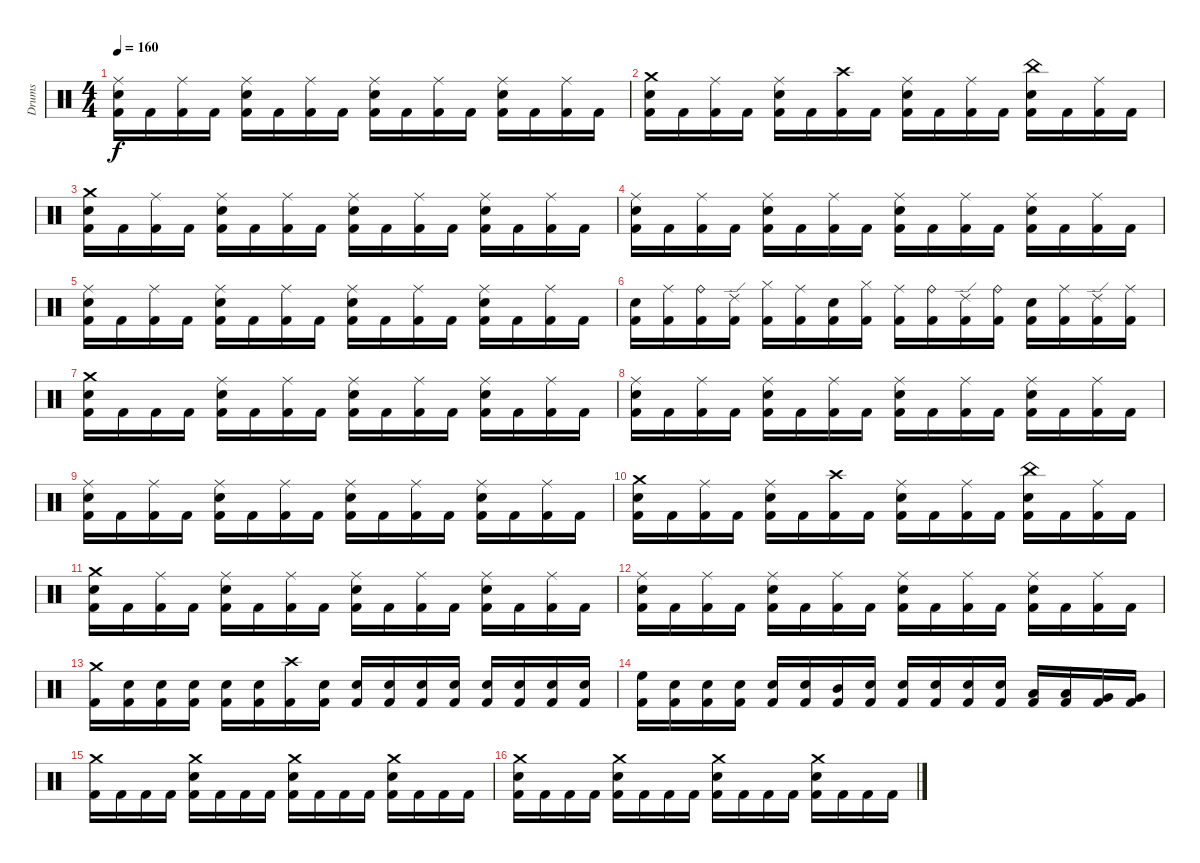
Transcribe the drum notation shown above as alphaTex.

\track ("Drums" "Drums") {instrument percussion}
\staff {score}
\articulation defaults
\ts (4 4)
\tempo 160
\clef neutral
\ks c
("Ride (middle)" "Snare (hit) 2" "Kick (hit) 2").16{dy f} "Kick (hit) 2".16 ("Ride (middle)" "Kick (hit) 2").16 "Kick (hit) 2".16 ("Ride (middle)" "Snare (hit) 2" "Kick (hit) 2").16 "Kick (hit) 2".16 ("Ride (middle)" "Kick (hit) 2").16 "Kick (hit) 2".16 ("Ride (middle)" "Snare (hit) 2" "Kick (hit) 2").16 "Kick (hit) 2".16 ("Ride (middle)" "Kick (hit) 2").16 "Kick (hit) 2".16 ("Ride (middle)" "Snare (hit) 2" "Kick (hit) 2").16 "Kick (hit) 2".16 ("Ride (middle)" "Kick (hit) 2").16 "Kick (hit) 2".16 |
("Crash medium (hit)" "Snare (hit) 2" "Kick (hit) 2").16 "Kick (hit) 2".16 ("Ride (middle)" "Kick (hit) 2").16 "Kick (hit) 2".16 ("Ride (middle)" "Snare (hit) 2" "Kick (hit) 2").16 "Kick (hit) 2".16 ("Crash high (hit)" "Kick (hit) 2").16 "Kick (hit) 2".16 ("Ride (middle)" "Snare (hit) 2" "Kick (hit) 2").16 "Kick (hit) 2".16 ("Ride (middle)" "Kick (hit) 2").16 "Kick (hit) 2".16 ("China (hit)" "Snare (hit) 2" "Kick (hit) 2").16 "Kick (hit) 2".16 ("Ride (middle)" "Kick (hit) 2").16 "Kick (hit) 2".16 |
("Crash medium (hit)" "Snare (hit) 2" "Kick (hit) 2").16 "Kick (hit) 2".16 ("Ride (middle)" "Kick (hit) 2").16 "Kick (hit) 2".16 ("Ride (middle)" "Snare (hit) 2" "Kick (hit) 2").16 "Kick (hit) 2".16 ("Ride (middle)" "Kick (hit) 2").16 "Kick (hit) 2".16 ("Ride (middle)" "Snare (hit) 2" "Kick (hit) 2").16 "Kick (hit) 2".16 ("Ride (middle)" "Kick (hit) 2").16 "Kick (hit) 2".16 ("Ride (middle)" "Snare (hit) 2" "Kick (hit) 2").16 "Kick (hit) 2".16 ("Ride (middle)" "Kick (hit) 2").16 "Kick (hit) 2".16 |
("Ride (middle)" "Snare (hit) 2" "Kick (hit) 2").16 "Kick (hit) 2".16 ("Ride (middle)" "Kick (hit) 2").16 "Kick (hit) 2".16 ("Ride (middle)" "Snare (hit) 2" "Kick (hit) 2").16 "Kick (hit) 2".16 ("Ride (middle)" "Kick (hit) 2").16 "Kick (hit) 2".16 ("Ride (middle)" "Snare (hit) 2" "Kick (hit) 2").16 "Kick (hit) 2".16 ("Ride (middle)" "Kick (hit) 2").16 "Kick (hit) 2".16 ("Ride (middle)" "Snare (hit) 2" "Kick (hit) 2").16 "Kick (hit) 2".16 ("Ride (middle)" "Kick (hit) 2").16 "Kick (hit) 2".16 |
("Ride (middle)" "Snare (hit) 2" "Kick (hit) 2").16 "Kick (hit) 2".16 ("Ride (middle)" "Kick (hit) 2").16 "Kick (hit) 2".16 ("Ride (middle)" "Snare (hit) 2" "Kick (hit) 2").16 "Kick (hit) 2".16 ("Ride (middle)" "Kick (hit) 2").16 "Kick (hit) 2".16 ("Ride (middle)" "Snare (hit) 2" "Kick (hit) 2").16 "Kick (hit) 2".16 ("Ride (middle)" "Kick (hit) 2").16 "Kick (hit) 2".16 ("Ride (middle)" "Snare (hit) 2" "Kick (hit) 2").16 "Kick (hit) 2".16 ("Ride (middle)" "Kick (hit) 2").16 "Kick (hit) 2".16 |
("Snare (hit) 2" "Kick (hit) 2").16 ("Ride (middle)" "Kick (hit) 2").16 ("Ride (bell)" "Kick (hit) 2").16 ("Ride (edge) 2" "Kick (hit) 2").16 ("Hi-Hat (closed)" "Kick (hit) 2").16 ("Ride (middle)" "Kick (hit) 2").16 ("Snare (hit) 2" "Kick (hit) 2").16 ("Hi-Hat (closed)" "Kick (hit) 2").16 ("Ride (middle)" "Kick (hit) 2").16 ("Ride (bell)" "Kick (hit) 2").16 ("Ride (edge) 2" "Kick (hit) 2").16 ("Ride (bell)" "Kick (hit) 2").16 ("Snare (hit) 2" "Kick (hit) 2").16 ("Ride (middle)" "Kick (hit) 2").16 ("Ride (edge) 2" "Kick (hit) 2").16 ("Ride (middle)" "Kick (hit) 2").16 |
("Crash medium (hit)" "Snare (hit) 2" "Kick (hit) 2").16 "Kick (hit) 2".16 "Kick (hit) 2".16 "Kick (hit) 2".16 ("Ride (middle)" "Snare (hit) 2" "Kick (hit) 2").16 "Kick (hit) 2".16 ("Ride (middle)" "Kick (hit) 2").16 "Kick (hit) 2".16 ("Ride (middle)" "Snare (hit) 2" "Kick (hit) 2").16 "Kick (hit) 2".16 ("Ride (middle)" "Kick (hit) 2").16 "Kick (hit) 2".16 ("Ride (middle)" "Snare (hit) 2" "Kick (hit) 2").16 "Kick (hit) 2".16 ("Ride (middle)" "Kick (hit) 2").16 "Kick (hit) 2".16 |
("Ride (middle)" "Snare (hit) 2" "Kick (hit) 2").16 "Kick (hit) 2".16 ("Ride (middle)" "Kick (hit) 2").16 "Kick (hit) 2".16 ("Ride (middle)" "Snare (hit) 2" "Kick (hit) 2").16 "Kick (hit) 2".16 ("Ride (middle)" "Kick (hit) 2").16 "Kick (hit) 2".16 ("Ride (middle)" "Snare (hit) 2" "Kick (hit) 2").16 "Kick (hit) 2".16 ("Ride (middle)" "Kick (hit) 2").16 "Kick (hit) 2".16 ("Ride (middle)" "Snare (hit) 2" "Kick (hit) 2").16 "Kick (hit) 2".16 ("Ride (middle)" "Kick (hit) 2").16 "Kick (hit) 2".16 |
("Ride (middle)" "Snare (hit) 2" "Kick (hit) 2").16 "Kick (hit) 2".16 ("Ride (middle)" "Kick (hit) 2").16 "Kick (hit) 2".16 ("Ride (middle)" "Snare (hit) 2" "Kick (hit) 2").16 "Kick (hit) 2".16 ("Ride (middle)" "Kick (hit) 2").16 "Kick (hit) 2".16 ("Ride (middle)" "Snare (hit) 2" "Kick (hit) 2").16 "Kick (hit) 2".16 ("Ride (middle)" "Kick (hit) 2").16 "Kick (hit) 2".16 ("Ride (middle)" "Snare (hit) 2" "Kick (hit) 2").16 "Kick (hit) 2".16 ("Ride (middle)" "Kick (hit) 2").16 "Kick (hit) 2".16 |
("Crash medium (hit)" "Snare (hit) 2" "Kick (hit) 2").16 "Kick (hit) 2".16 ("Ride (middle)" "Kick (hit) 2").16 "Kick (hit) 2".16 ("Ride (middle)" "Snare (hit) 2" "Kick (hit) 2").16 "Kick (hit) 2".16 ("Crash high (hit)" "Kick (hit) 2").16 "Kick (hit) 2".16 ("Ride (middle)" "Snare (hit) 2" "Kick (hit) 2").16 "Kick (hit) 2".16 ("Ride (middle)" "Kick (hit) 2").16 "Kick (hit) 2".16 ("China (hit)" "Snare (hit) 2" "Kick (hit) 2").16 "Kick (hit) 2".16 ("Ride (middle)" "Kick (hit) 2").16 "Kick (hit) 2".16 |
("Crash medium (hit)" "Snare (hit) 2" "Kick (hit) 2").16 "Kick (hit) 2".16 ("Ride (middle)" "Kick (hit) 2").16 "Kick (hit) 2".16 ("Ride (middle)" "Snare (hit) 2" "Kick (hit) 2").16 "Kick (hit) 2".16 ("Ride (middle)" "Kick (hit) 2").16 "Kick (hit) 2".16 ("Ride (middle)" "Snare (hit) 2" "Kick (hit) 2").16 "Kick (hit) 2".16 ("Ride (middle)" "Kick (hit) 2").16 "Kick (hit) 2".16 ("Ride (middle)" "Snare (hit) 2" "Kick (hit) 2").16 "Kick (hit) 2".16 ("Ride (middle)" "Kick (hit) 2").16 "Kick (hit) 2".16 |
("Ride (middle)" "Snare (hit) 2" "Kick (hit) 2").16 "Kick (hit) 2".16 ("Ride (middle)" "Kick (hit) 2").16 "Kick (hit) 2".16 ("Ride (middle)" "Snare (hit) 2" "Kick (hit) 2").16 "Kick (hit) 2".16 ("Ride (middle)" "Kick (hit) 2").16 "Kick (hit) 2".16 ("Ride (middle)" "Snare (hit) 2" "Kick (hit) 2").16 "Kick (hit) 2".16 ("Ride (middle)" "Kick (hit) 2").16 "Kick (hit) 2".16 ("Ride (middle)" "Snare (hit) 2" "Kick (hit) 2").16 "Kick (hit) 2".16 ("Ride (middle)" "Kick (hit) 2").16 "Kick (hit) 2".16 |
("Crash medium (hit)" "Kick (hit) 2").16 ("Snare (hit) 2" "Kick (hit) 2").16 ("Snare (hit) 2" "Kick (hit) 2").16 ("Snare (hit) 2" "Kick (hit) 2").16 ("Snare (hit) 2" "Kick (hit) 2").16 ("Snare (hit) 2" "Kick (hit) 2").16 ("Crash high (hit)" "Kick (hit) 2").16 ("Snare (hit) 2" "Kick (hit) 2").16 ("Snare (hit) 2" "Kick (hit) 2").16 ("Snare (hit) 2" "Kick (hit) 2").16 ("Snare (hit) 2" "Kick (hit) 2").16 ("Snare (hit) 2" "Kick (hit) 2").16 ("Snare (hit) 2" "Kick (hit) 2").16 ("Snare (hit) 2" "Kick (hit) 2").16 ("Snare (hit) 2" "Kick (hit) 2").16 ("Snare (hit) 2" "Kick (hit) 2").16 |
("High Floor Tom (hit)" "Kick (hit) 2").16 ("Snare (hit) 2" "Kick (hit) 2").16 ("Snare (hit) 2" "Kick (hit) 2").16 ("Snare (hit) 2" "Kick (hit) 2").16 ("Snare (hit) 2" "Kick (hit) 2").16 ("Snare (hit) 2" "Kick (hit) 2").16 ("Mid Tom (hit)" "Kick (hit) 2").16 ("Snare (hit) 2" "Kick (hit) 2").16 ("Snare (hit) 2" "Kick (hit) 2").16 ("Snare (hit) 2" "Kick (hit) 2").16 ("Snare (hit) 2" "Kick (hit) 2").16 ("Snare (hit) 2" "Kick (hit) 2").16 ("Low Tom (hit)" "Kick (hit) 2").16 ("Low Tom (hit)" "Kick (hit) 2").16 ("Very Low Tom (hit)" "Kick (hit) 2").16 ("Very Low Tom (hit)" "Kick (hit) 2").16 |
("Crash medium (hit)" "Kick (hit) 2").16 "Kick (hit) 2".16 "Kick (hit) 2".16 "Kick (hit) 2".16 ("Crash medium (hit)" "Snare (hit) 2" "Kick (hit) 2").16 "Kick (hit) 2".16 "Kick (hit) 2".16 "Kick (hit) 2".16 ("Crash medium (hit)" "Snare (hit) 2" "Kick (hit) 2").16 "Kick (hit) 2".16 "Kick (hit) 2".16 "Kick (hit) 2".16 ("Crash medium (hit)" "Snare (hit) 2" "Kick (hit) 2").16 "Kick (hit) 2".16 "Kick (hit) 2".16 "Kick (hit) 2".16 |
("Crash medium (hit)" "Snare (hit) 2" "Kick (hit) 2").16 "Kick (hit) 2".16 "Kick (hit) 2".16 "Kick (hit) 2".16 ("Crash medium (hit)" "Snare (hit) 2" "Kick (hit) 2").16 "Kick (hit) 2".16 "Kick (hit) 2".16 "Kick (hit) 2".16 ("Crash medium (hit)" "Snare (hit) 2" "Kick (hit) 2").16 "Kick (hit) 2".16 "Kick (hit) 2".16 "Kick (hit) 2".16 ("Crash medium (hit)" "Snare (hit) 2" "Kick (hit) 2").16 "Kick (hit) 2".16 "Kick (hit) 2".16 "Kick (hit) 2".16
